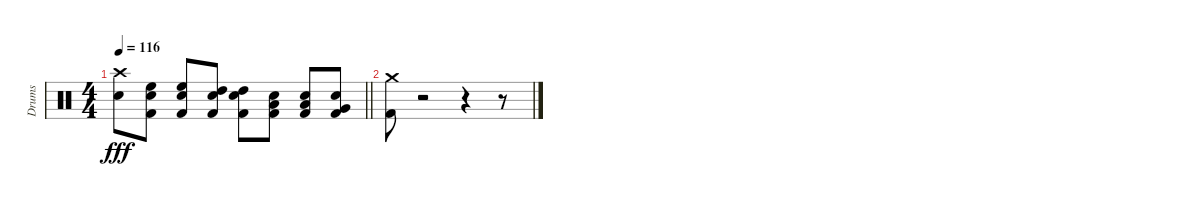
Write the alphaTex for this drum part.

\track ("Drums" "Drums") {instrument percussion}
\staff {score}
\articulation defaults
\ts (4 4)
\tempo 116
\clef neutral
\barLineRight lightlight
\ks c
("Crash high (hit)" "Snare (hit) 2").8{dy fff} ("Snare (hit) 2" "High Floor Tom (hit)" "Kick (hit) 2").8 ("Snare (hit) 2" "High Floor Tom (hit)" "Kick (hit) 2").8 ("Snare (hit) 2" "High Tom (hit)" "Kick (hit) 2").8 ("Snare (hit) 2" "High Tom (hit)" "Kick (hit) 2").8 ("Snare (hit) 2" "Low Tom (hit)" "Kick (hit) 2").8 ("Snare (hit) 2" "Low Tom (hit)" "Kick (hit) 2").8 ("Snare (hit) 2" "Very Low Tom (hit)" "Kick (hit) 2").8 |
("Kick (hit) 2" "Crash medium (hit)").8 r.2 r.4 r.8
